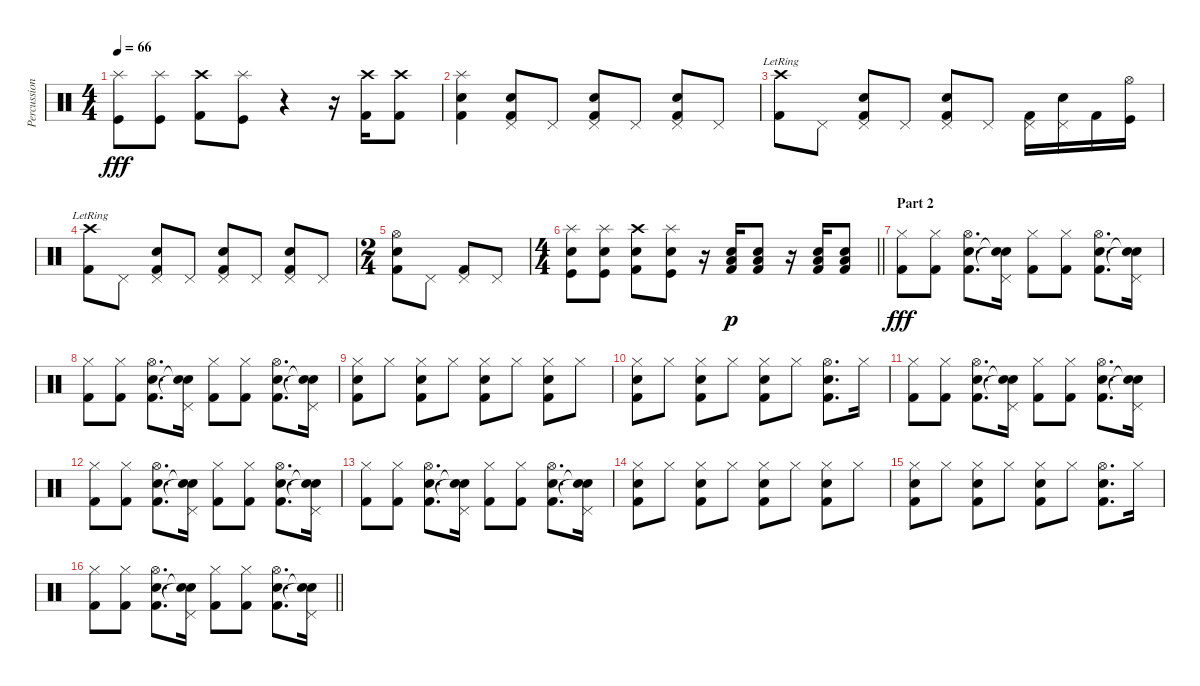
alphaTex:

\track ("Percussion" "Percussion") {instrument percussion}
\staff {score}
\articulation defaults
\ts (4 4)
\tempo 66
\clef neutral
\ks c
("Splash (hit)" "Kick (hit)").8{dy fff} ("Splash (hit)" "Kick (hit)").8 ("Crash high (hit)" "Kick (hit) 2").8 ("Splash (hit)" "Kick (hit)").8 r.4 r.16 ("Crash high (hit)" "Kick (hit) 2").16 ("Crash high (hit)" "Kick (hit) 2").8 |
("Splash (hit)" "Snare (hit) 2" "Kick (hit) 2").4 ("Pedal Hi-Hat (hit)" "Snare (hit) 2" "Kick (hit) 2").8 "Pedal Hi-Hat (hit)".8 ("Pedal Hi-Hat (hit)" "Snare (hit) 2" "Kick (hit) 2").8 "Pedal Hi-Hat (hit)".8 ("Pedal Hi-Hat (hit)" "Snare (hit) 2" "Kick (hit) 2").8 "Pedal Hi-Hat (hit)".8 |
("Crash high (hit)"{lr} "Kick (hit) 2").8 "Pedal Hi-Hat (hit)".8 ("Pedal Hi-Hat (hit)" "Snare (hit) 2" "Kick (hit) 2").8 "Pedal Hi-Hat (hit)".8 ("Pedal Hi-Hat (hit)" "Snare (hit) 2" "Kick (hit) 2").8 "Pedal Hi-Hat (hit)".8 ("Pedal Hi-Hat (hit)" "Kick (hit) 2").16 ("Pedal Hi-Hat (hit)" "Snare (hit) 2").16 "Kick (hit) 2".16 ("Hi-Hat (open)" "Kick (hit)").16 |
("Crash high (hit)"{lr} "Kick (hit) 2").8 "Pedal Hi-Hat (hit)".8 ("Pedal Hi-Hat (hit)" "Snare (hit) 2" "Kick (hit) 2").8 "Pedal Hi-Hat (hit)".8 ("Pedal Hi-Hat (hit)" "Snare (hit) 2" "Kick (hit) 2").8 "Pedal Hi-Hat (hit)".8 ("Pedal Hi-Hat (hit)" "Snare (hit) 2" "Kick (hit) 2").8 "Pedal Hi-Hat (hit)".8 |
\ts (2 4)
("Hi-Hat (open)" "Snare (hit) 2" "Kick (hit) 2").8 "Pedal Hi-Hat (hit)".8 ("Pedal Hi-Hat (hit)" "Kick (hit) 2").8 "Pedal Hi-Hat (hit)".8 |
\ts (4 4)
\barLineRight lightlight
("Splash (hit)" "Snare (hit) 2" "Kick (hit)").8 ("Splash (hit)" "Snare (hit) 2" "Kick (hit)").8 ("Crash high (hit)" "Snare (hit) 2" "Kick (hit) 2").8 ("Splash (hit)" "Snare (hit) 2" "Kick (hit)").8 r.16 ("Low Floor Tom (hit)" "Snare (hit) 2" "Kick (hit) 2").16{dy p} ("Low Floor Tom (hit)" "Snare (hit) 2" "Kick (hit) 2").8 r.16 ("Low Floor Tom (hit)" "Snare (hit) 2" "Kick (hit) 2").16 ("Low Floor Tom (hit)" "Snare (hit) 2" "Kick (hit) 2").8 |
\section ("" "Part 2")
("Hi-Hat (closed)" "Kick (hit) 2").8{dy fff} ("Hi-Hat (closed)" "Kick (hit) 2").8 ("Hi-Hat (open)" "Snare (hit) 2" "Kick (hit) 2").8{d} ("Pedal Hi-Hat (hit)" "Snare (hit)"{t} "Snare (hit)"{t}).16 ("Hi-Hat (closed)" "Kick (hit) 2").8 ("Hi-Hat (closed)" "Kick (hit) 2").8 ("Hi-Hat (open)" "Snare (hit) 2" "Kick (hit) 2").8{d} ("Pedal Hi-Hat (hit)" "Snare (hit)"{t} "Snare (hit)"{t}).16 |
("Hi-Hat (closed)" "Kick (hit) 2").8 ("Hi-Hat (closed)" "Kick (hit) 2").8 ("Hi-Hat (open)" "Snare (hit) 2" "Kick (hit) 2").8{d} ("Pedal Hi-Hat (hit)" "Snare (hit)"{t} "Snare (hit)"{t}).16 ("Hi-Hat (closed)" "Kick (hit) 2").8 ("Hi-Hat (closed)" "Kick (hit) 2").8 ("Hi-Hat (open)" "Snare (hit) 2" "Kick (hit) 2").8{d} ("Pedal Hi-Hat (hit)" "Snare (hit)"{t} "Snare (hit)"{t}).16 |
("Hi-Hat (closed)" "Snare (hit) 2" "Kick (hit) 2").8 "Hi-Hat (closed)".8 ("Hi-Hat (closed)" "Snare (hit) 2" "Kick (hit) 2").8 "Hi-Hat (closed)".8 ("Hi-Hat (closed)" "Snare (hit) 2" "Kick (hit) 2").8 "Hi-Hat (closed)".8 ("Hi-Hat (closed)" "Snare (hit) 2" "Kick (hit) 2").8 "Hi-Hat (closed)".8 |
("Hi-Hat (closed)" "Snare (hit) 2" "Kick (hit) 2").8 "Hi-Hat (closed)".8 ("Hi-Hat (closed)" "Snare (hit) 2" "Kick (hit) 2").8 "Hi-Hat (closed)".8 ("Hi-Hat (closed)" "Snare (hit) 2" "Kick (hit) 2").8 "Hi-Hat (closed)".8 ("Hi-Hat (open)" "Snare (hit) 2" "Kick (hit) 2").8{d} "Hi-Hat (closed)".16 |
("Hi-Hat (closed)" "Kick (hit) 2").8 ("Hi-Hat (closed)" "Kick (hit) 2").8 ("Hi-Hat (open)" "Snare (hit) 2" "Kick (hit) 2").8{d} ("Pedal Hi-Hat (hit)" "Snare (hit)"{t} "Snare (hit)"{t}).16 ("Hi-Hat (closed)" "Kick (hit) 2").8 ("Hi-Hat (closed)" "Kick (hit) 2").8 ("Hi-Hat (open)" "Snare (hit) 2" "Kick (hit) 2").8{d} ("Pedal Hi-Hat (hit)" "Snare (hit)"{t} "Snare (hit)"{t}).16 |
("Hi-Hat (closed)" "Kick (hit) 2").8 ("Hi-Hat (closed)" "Kick (hit) 2").8 ("Hi-Hat (open)" "Snare (hit) 2" "Kick (hit) 2").8{d} ("Pedal Hi-Hat (hit)" "Snare (hit)"{t} "Snare (hit)"{t}).16 ("Hi-Hat (closed)" "Kick (hit) 2").8 ("Hi-Hat (closed)" "Kick (hit) 2").8 ("Hi-Hat (open)" "Snare (hit) 2" "Kick (hit) 2").8{d} ("Pedal Hi-Hat (hit)" "Snare (hit)"{t} "Snare (hit)"{t}).16 |
("Hi-Hat (closed)" "Kick (hit) 2").8 ("Hi-Hat (closed)" "Kick (hit) 2").8 ("Hi-Hat (open)" "Snare (hit) 2" "Kick (hit) 2").8{d} ("Pedal Hi-Hat (hit)" "Snare (hit)"{t} "Snare (hit)"{t}).16 ("Hi-Hat (closed)" "Kick (hit) 2").8 ("Hi-Hat (closed)" "Kick (hit) 2").8 ("Hi-Hat (open)" "Snare (hit) 2" "Kick (hit) 2").8{d} ("Pedal Hi-Hat (hit)" "Snare (hit)"{t} "Snare (hit)"{t}).16 |
("Hi-Hat (closed)" "Snare (hit) 2" "Kick (hit) 2").8 "Hi-Hat (closed)".8 ("Hi-Hat (closed)" "Snare (hit) 2" "Kick (hit) 2").8 "Hi-Hat (closed)".8 ("Hi-Hat (closed)" "Snare (hit) 2" "Kick (hit) 2").8 "Hi-Hat (closed)".8 ("Hi-Hat (closed)" "Snare (hit) 2" "Kick (hit) 2").8 "Hi-Hat (closed)".8 |
("Hi-Hat (closed)" "Snare (hit) 2" "Kick (hit) 2").8 "Hi-Hat (closed)".8 ("Hi-Hat (closed)" "Snare (hit) 2" "Kick (hit) 2").8 "Hi-Hat (closed)".8 ("Hi-Hat (closed)" "Snare (hit) 2" "Kick (hit) 2").8 "Hi-Hat (closed)".8 ("Hi-Hat (open)" "Snare (hit) 2" "Kick (hit) 2").8{d} "Hi-Hat (closed)".16 |
\barLineRight lightlight
("Hi-Hat (closed)" "Kick (hit) 2").8 ("Hi-Hat (closed)" "Kick (hit) 2").8 ("Hi-Hat (open)" "Snare (hit) 2" "Kick (hit) 2").8{d} ("Pedal Hi-Hat (hit)" "Snare (hit)"{t} "Snare (hit)"{t}).16 ("Hi-Hat (closed)" "Kick (hit) 2").8 ("Hi-Hat (closed)" "Kick (hit) 2").8 ("Hi-Hat (open)" "Snare (hit) 2" "Kick (hit) 2").8{d} ("Pedal Hi-Hat (hit)" "Snare (hit)"{t} "Snare (hit)"{t}).16
